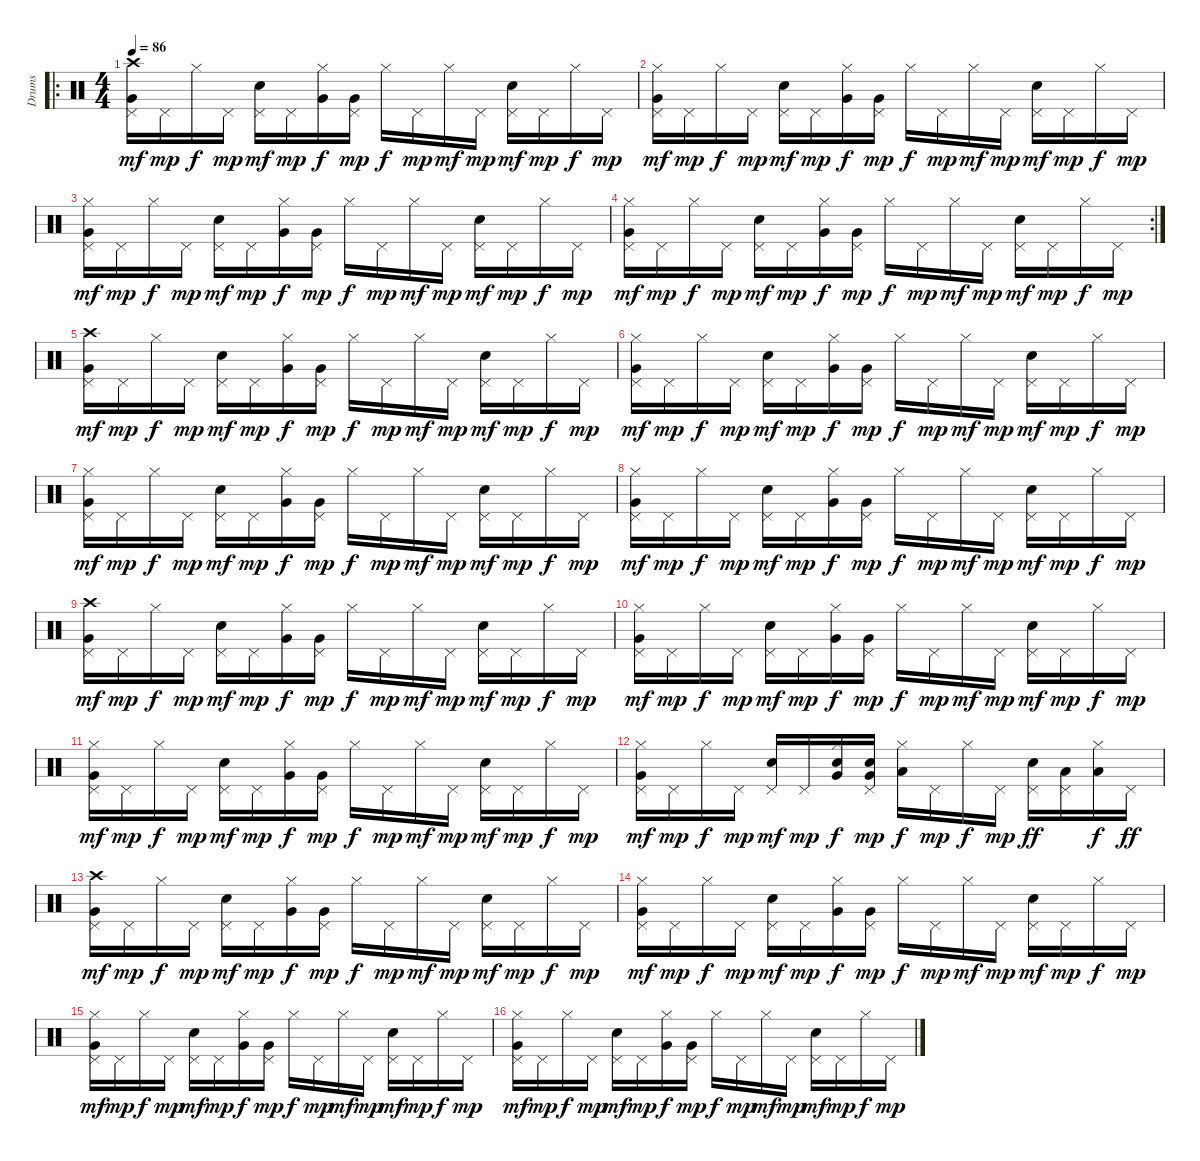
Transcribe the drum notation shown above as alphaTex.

\track ("Drums" "Drums") {instrument percussion}
\staff {score}
\articulation defaults
\ro
\ts (4 4)
\tempo 86
\clef neutral
\ks c
("Crash high (hit)" "Very Low Tom (hit)" "Pedal Hi-Hat (hit)").16{dy mf} "Pedal Hi-Hat (hit)".16{dy mp} "Hi-Hat (closed)".16{dy f} "Pedal Hi-Hat (hit)".16{dy mp} ("Electric Snare (hit)" "Pedal Hi-Hat (hit)").16{dy mf} "Pedal Hi-Hat (hit)".16{dy mp} ("Hi-Hat (closed)" "Very Low Tom (hit)").16{dy f} ("Very Low Tom (hit)" "Pedal Hi-Hat (hit)").16{dy mp} "Hi-Hat (closed)".16{dy f} "Pedal Hi-Hat (hit)".16{dy mp} "Hi-Hat (closed)".16{dy mf} "Pedal Hi-Hat (hit)".16{dy mp} ("Electric Snare (hit)" "Pedal Hi-Hat (hit)").16{dy mf} "Pedal Hi-Hat (hit)".16{dy mp} "Hi-Hat (closed)".16{dy f} "Pedal Hi-Hat (hit)".16{dy mp} |
("Hi-Hat (closed)" "Very Low Tom (hit)" "Pedal Hi-Hat (hit)").16{dy mf} "Pedal Hi-Hat (hit)".16{dy mp} "Hi-Hat (closed)".16{dy f} "Pedal Hi-Hat (hit)".16{dy mp} ("Electric Snare (hit)" "Pedal Hi-Hat (hit)").16{dy mf} "Pedal Hi-Hat (hit)".16{dy mp} ("Hi-Hat (closed)" "Very Low Tom (hit)").16{dy f} ("Very Low Tom (hit)" "Pedal Hi-Hat (hit)").16{dy mp} "Hi-Hat (closed)".16{dy f} "Pedal Hi-Hat (hit)".16{dy mp} "Hi-Hat (closed)".16{dy mf} "Pedal Hi-Hat (hit)".16{dy mp} ("Electric Snare (hit)" "Pedal Hi-Hat (hit)").16{dy mf} "Pedal Hi-Hat (hit)".16{dy mp} "Hi-Hat (closed)".16{dy f} "Pedal Hi-Hat (hit)".16{dy mp} |
("Hi-Hat (closed)" "Very Low Tom (hit)" "Pedal Hi-Hat (hit)").16{dy mf} "Pedal Hi-Hat (hit)".16{dy mp} "Hi-Hat (closed)".16{dy f} "Pedal Hi-Hat (hit)".16{dy mp} ("Electric Snare (hit)" "Pedal Hi-Hat (hit)").16{dy mf} "Pedal Hi-Hat (hit)".16{dy mp} ("Hi-Hat (closed)" "Very Low Tom (hit)").16{dy f} ("Very Low Tom (hit)" "Pedal Hi-Hat (hit)").16{dy mp} "Hi-Hat (closed)".16{dy f} "Pedal Hi-Hat (hit)".16{dy mp} "Hi-Hat (closed)".16{dy mf} "Pedal Hi-Hat (hit)".16{dy mp} ("Electric Snare (hit)" "Pedal Hi-Hat (hit)").16{dy mf} "Pedal Hi-Hat (hit)".16{dy mp} "Hi-Hat (closed)".16{dy f} "Pedal Hi-Hat (hit)".16{dy mp} |
\rc 2
("Hi-Hat (closed)" "Very Low Tom (hit)" "Pedal Hi-Hat (hit)").16{dy mf} "Pedal Hi-Hat (hit)".16{dy mp} "Hi-Hat (closed)".16{dy f} "Pedal Hi-Hat (hit)".16{dy mp} ("Electric Snare (hit)" "Pedal Hi-Hat (hit)").16{dy mf} "Pedal Hi-Hat (hit)".16{dy mp} ("Hi-Hat (closed)" "Very Low Tom (hit)").16{dy f} ("Very Low Tom (hit)" "Pedal Hi-Hat (hit)").16{dy mp} "Hi-Hat (closed)".16{dy f} "Pedal Hi-Hat (hit)".16{dy mp} "Hi-Hat (closed)".16{dy mf} "Pedal Hi-Hat (hit)".16{dy mp} ("Electric Snare (hit)" "Pedal Hi-Hat (hit)").16{dy mf} "Pedal Hi-Hat (hit)".16{dy mp} "Hi-Hat (closed)".16{dy f} "Pedal Hi-Hat (hit)".16{dy mp} |
("Crash high (hit)" "Very Low Tom (hit)" "Pedal Hi-Hat (hit)").16{dy mf} "Pedal Hi-Hat (hit)".16{dy mp} "Hi-Hat (closed)".16{dy f} "Pedal Hi-Hat (hit)".16{dy mp} ("Electric Snare (hit)" "Pedal Hi-Hat (hit)").16{dy mf} "Pedal Hi-Hat (hit)".16{dy mp} ("Hi-Hat (closed)" "Very Low Tom (hit)").16{dy f} ("Very Low Tom (hit)" "Pedal Hi-Hat (hit)").16{dy mp} "Hi-Hat (closed)".16{dy f} "Pedal Hi-Hat (hit)".16{dy mp} "Hi-Hat (closed)".16{dy mf} "Pedal Hi-Hat (hit)".16{dy mp} ("Electric Snare (hit)" "Pedal Hi-Hat (hit)").16{dy mf} "Pedal Hi-Hat (hit)".16{dy mp} "Hi-Hat (closed)".16{dy f} "Pedal Hi-Hat (hit)".16{dy mp} |
("Hi-Hat (closed)" "Very Low Tom (hit)" "Pedal Hi-Hat (hit)").16{dy mf} "Pedal Hi-Hat (hit)".16{dy mp} "Hi-Hat (closed)".16{dy f} "Pedal Hi-Hat (hit)".16{dy mp} ("Electric Snare (hit)" "Pedal Hi-Hat (hit)").16{dy mf} "Pedal Hi-Hat (hit)".16{dy mp} ("Hi-Hat (closed)" "Very Low Tom (hit)").16{dy f} ("Very Low Tom (hit)" "Pedal Hi-Hat (hit)").16{dy mp} "Hi-Hat (closed)".16{dy f} "Pedal Hi-Hat (hit)".16{dy mp} "Hi-Hat (closed)".16{dy mf} "Pedal Hi-Hat (hit)".16{dy mp} ("Electric Snare (hit)" "Pedal Hi-Hat (hit)").16{dy mf} "Pedal Hi-Hat (hit)".16{dy mp} "Hi-Hat (closed)".16{dy f} "Pedal Hi-Hat (hit)".16{dy mp} |
("Hi-Hat (closed)" "Very Low Tom (hit)" "Pedal Hi-Hat (hit)").16{dy mf} "Pedal Hi-Hat (hit)".16{dy mp} "Hi-Hat (closed)".16{dy f} "Pedal Hi-Hat (hit)".16{dy mp} ("Electric Snare (hit)" "Pedal Hi-Hat (hit)").16{dy mf} "Pedal Hi-Hat (hit)".16{dy mp} ("Hi-Hat (closed)" "Very Low Tom (hit)").16{dy f} ("Very Low Tom (hit)" "Pedal Hi-Hat (hit)").16{dy mp} "Hi-Hat (closed)".16{dy f} "Pedal Hi-Hat (hit)".16{dy mp} "Hi-Hat (closed)".16{dy mf} "Pedal Hi-Hat (hit)".16{dy mp} ("Electric Snare (hit)" "Pedal Hi-Hat (hit)").16{dy mf} "Pedal Hi-Hat (hit)".16{dy mp} "Hi-Hat (closed)".16{dy f} "Pedal Hi-Hat (hit)".16{dy mp} |
("Hi-Hat (closed)" "Very Low Tom (hit)" "Pedal Hi-Hat (hit)").16{dy mf} "Pedal Hi-Hat (hit)".16{dy mp} "Hi-Hat (closed)".16{dy f} "Pedal Hi-Hat (hit)".16{dy mp} ("Electric Snare (hit)" "Pedal Hi-Hat (hit)").16{dy mf} "Pedal Hi-Hat (hit)".16{dy mp} ("Hi-Hat (closed)" "Very Low Tom (hit)").16{dy f} ("Very Low Tom (hit)" "Pedal Hi-Hat (hit)").16{dy mp} "Hi-Hat (closed)".16{dy f} "Pedal Hi-Hat (hit)".16{dy mp} "Hi-Hat (closed)".16{dy mf} "Pedal Hi-Hat (hit)".16{dy mp} ("Electric Snare (hit)" "Pedal Hi-Hat (hit)").16{dy mf} "Pedal Hi-Hat (hit)".16{dy mp} "Hi-Hat (closed)".16{dy f} "Pedal Hi-Hat (hit)".16{dy mp} |
("Crash high (hit)" "Very Low Tom (hit)" "Pedal Hi-Hat (hit)").16{dy mf} "Pedal Hi-Hat (hit)".16{dy mp} "Hi-Hat (closed)".16{dy f} "Pedal Hi-Hat (hit)".16{dy mp} ("Electric Snare (hit)" "Pedal Hi-Hat (hit)").16{dy mf} "Pedal Hi-Hat (hit)".16{dy mp} ("Hi-Hat (closed)" "Very Low Tom (hit)").16{dy f} ("Very Low Tom (hit)" "Pedal Hi-Hat (hit)").16{dy mp} "Hi-Hat (closed)".16{dy f} "Pedal Hi-Hat (hit)".16{dy mp} "Hi-Hat (closed)".16{dy mf} "Pedal Hi-Hat (hit)".16{dy mp} ("Electric Snare (hit)" "Pedal Hi-Hat (hit)").16{dy mf} "Pedal Hi-Hat (hit)".16{dy mp} "Hi-Hat (closed)".16{dy f} "Pedal Hi-Hat (hit)".16{dy mp} |
("Hi-Hat (closed)" "Very Low Tom (hit)" "Pedal Hi-Hat (hit)").16{dy mf} "Pedal Hi-Hat (hit)".16{dy mp} "Hi-Hat (closed)".16{dy f} "Pedal Hi-Hat (hit)".16{dy mp} ("Electric Snare (hit)" "Pedal Hi-Hat (hit)").16{dy mf} "Pedal Hi-Hat (hit)".16{dy mp} ("Hi-Hat (closed)" "Very Low Tom (hit)").16{dy f} ("Very Low Tom (hit)" "Pedal Hi-Hat (hit)").16{dy mp} "Hi-Hat (closed)".16{dy f} "Pedal Hi-Hat (hit)".16{dy mp} "Hi-Hat (closed)".16{dy mf} "Pedal Hi-Hat (hit)".16{dy mp} ("Electric Snare (hit)" "Pedal Hi-Hat (hit)").16{dy mf} "Pedal Hi-Hat (hit)".16{dy mp} "Hi-Hat (closed)".16{dy f} "Pedal Hi-Hat (hit)".16{dy mp} |
("Hi-Hat (closed)" "Very Low Tom (hit)" "Pedal Hi-Hat (hit)").16{dy mf} "Pedal Hi-Hat (hit)".16{dy mp} "Hi-Hat (closed)".16{dy f} "Pedal Hi-Hat (hit)".16{dy mp} ("Electric Snare (hit)" "Pedal Hi-Hat (hit)").16{dy mf} "Pedal Hi-Hat (hit)".16{dy mp} ("Hi-Hat (closed)" "Very Low Tom (hit)").16{dy f} ("Very Low Tom (hit)" "Pedal Hi-Hat (hit)").16{dy mp} "Hi-Hat (closed)".16{dy f} "Pedal Hi-Hat (hit)".16{dy mp} "Hi-Hat (closed)".16{dy mf} "Pedal Hi-Hat (hit)".16{dy mp} ("Electric Snare (hit)" "Pedal Hi-Hat (hit)").16{dy mf} "Pedal Hi-Hat (hit)".16{dy mp} "Hi-Hat (closed)".16{dy f} "Pedal Hi-Hat (hit)".16{dy mp} |
("Hi-Hat (closed)" "Very Low Tom (hit)" "Pedal Hi-Hat (hit)").16{dy mf} "Pedal Hi-Hat (hit)".16{dy mp} "Hi-Hat (closed)".16{dy f} "Pedal Hi-Hat (hit)".16{dy mp} ("Electric Snare (hit)" "Pedal Hi-Hat (hit)").16{dy mf} "Pedal Hi-Hat (hit)".16{dy mp} ("Hi-Hat (closed)" "Electric Snare (hit)" "Very Low Tom (hit)").16{dy f} ("Electric Snare (hit)" "Very Low Tom (hit)" "Pedal Hi-Hat (hit)").16{dy mp} ("Hi-Hat (closed)" "Low Tom (hit)").16{dy f} "Pedal Hi-Hat (hit)".16{dy mp} "Hi-Hat (closed)".16{dy f} "Pedal Hi-Hat (hit)".16{dy mp} ("Electric Snare (hit)" "Pedal Hi-Hat (hit)").16{dy ff} ("Low Tom (hit)" "Pedal Hi-Hat (hit)").16 ("Hi-Hat (closed)" "Low Tom (hit)").16{dy f} "Pedal Hi-Hat (hit)".16{dy ff} |
("Crash high (hit)" "Very Low Tom (hit)" "Pedal Hi-Hat (hit)").16{dy mf} "Pedal Hi-Hat (hit)".16{dy mp} "Hi-Hat (closed)".16{dy f} "Pedal Hi-Hat (hit)".16{dy mp} ("Electric Snare (hit)" "Pedal Hi-Hat (hit)").16{dy mf} "Pedal Hi-Hat (hit)".16{dy mp} ("Hi-Hat (closed)" "Very Low Tom (hit)").16{dy f} ("Very Low Tom (hit)" "Pedal Hi-Hat (hit)").16{dy mp} "Hi-Hat (closed)".16{dy f} "Pedal Hi-Hat (hit)".16{dy mp} "Hi-Hat (closed)".16{dy mf} "Pedal Hi-Hat (hit)".16{dy mp} ("Electric Snare (hit)" "Pedal Hi-Hat (hit)").16{dy mf} "Pedal Hi-Hat (hit)".16{dy mp} "Hi-Hat (closed)".16{dy f} "Pedal Hi-Hat (hit)".16{dy mp} |
("Hi-Hat (closed)" "Very Low Tom (hit)" "Pedal Hi-Hat (hit)").16{dy mf} "Pedal Hi-Hat (hit)".16{dy mp} "Hi-Hat (closed)".16{dy f} "Pedal Hi-Hat (hit)".16{dy mp} ("Electric Snare (hit)" "Pedal Hi-Hat (hit)").16{dy mf} "Pedal Hi-Hat (hit)".16{dy mp} ("Hi-Hat (closed)" "Very Low Tom (hit)").16{dy f} ("Very Low Tom (hit)" "Pedal Hi-Hat (hit)").16{dy mp} "Hi-Hat (closed)".16{dy f} "Pedal Hi-Hat (hit)".16{dy mp} "Hi-Hat (closed)".16{dy mf} "Pedal Hi-Hat (hit)".16{dy mp} ("Electric Snare (hit)" "Pedal Hi-Hat (hit)").16{dy mf} "Pedal Hi-Hat (hit)".16{dy mp} "Hi-Hat (closed)".16{dy f} "Pedal Hi-Hat (hit)".16{dy mp} |
("Hi-Hat (closed)" "Very Low Tom (hit)" "Pedal Hi-Hat (hit)").16{dy mf} "Pedal Hi-Hat (hit)".16{dy mp} "Hi-Hat (closed)".16{dy f} "Pedal Hi-Hat (hit)".16{dy mp} ("Electric Snare (hit)" "Pedal Hi-Hat (hit)").16{dy mf} "Pedal Hi-Hat (hit)".16{dy mp} ("Hi-Hat (closed)" "Very Low Tom (hit)").16{dy f} ("Very Low Tom (hit)" "Pedal Hi-Hat (hit)").16{dy mp} "Hi-Hat (closed)".16{dy f} "Pedal Hi-Hat (hit)".16{dy mp} "Hi-Hat (closed)".16{dy mf} "Pedal Hi-Hat (hit)".16{dy mp} ("Electric Snare (hit)" "Pedal Hi-Hat (hit)").16{dy mf} "Pedal Hi-Hat (hit)".16{dy mp} "Hi-Hat (closed)".16{dy f} "Pedal Hi-Hat (hit)".16{dy mp} |
("Hi-Hat (closed)" "Very Low Tom (hit)" "Pedal Hi-Hat (hit)").16{dy mf} "Pedal Hi-Hat (hit)".16{dy mp} "Hi-Hat (closed)".16{dy f} "Pedal Hi-Hat (hit)".16{dy mp} ("Electric Snare (hit)" "Pedal Hi-Hat (hit)").16{dy mf} "Pedal Hi-Hat (hit)".16{dy mp} ("Hi-Hat (closed)" "Very Low Tom (hit)").16{dy f} ("Very Low Tom (hit)" "Pedal Hi-Hat (hit)").16{dy mp} "Hi-Hat (closed)".16{dy f} "Pedal Hi-Hat (hit)".16{dy mp} "Hi-Hat (closed)".16{dy mf} "Pedal Hi-Hat (hit)".16{dy mp} ("Electric Snare (hit)" "Pedal Hi-Hat (hit)").16{dy mf} "Pedal Hi-Hat (hit)".16{dy mp} "Hi-Hat (closed)".16{dy f} "Pedal Hi-Hat (hit)".16{dy mp}
